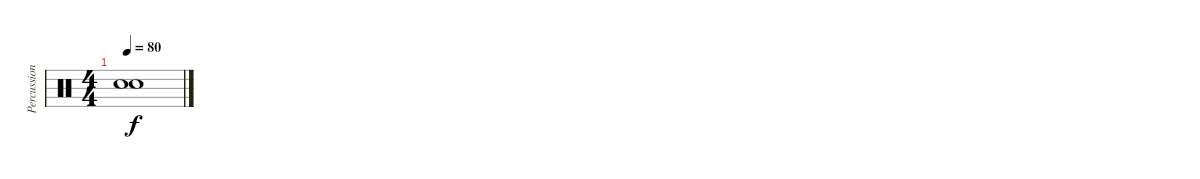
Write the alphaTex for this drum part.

\track ("Percussion" "Percussion") {instrument percussion}
\staff {score}
\articulation defaults
\ts (4 4)
\tempo 80
\clef neutral
\ks c
("Snare (hit)"{t} "Snare (hit)"{t}).1{dy f}
